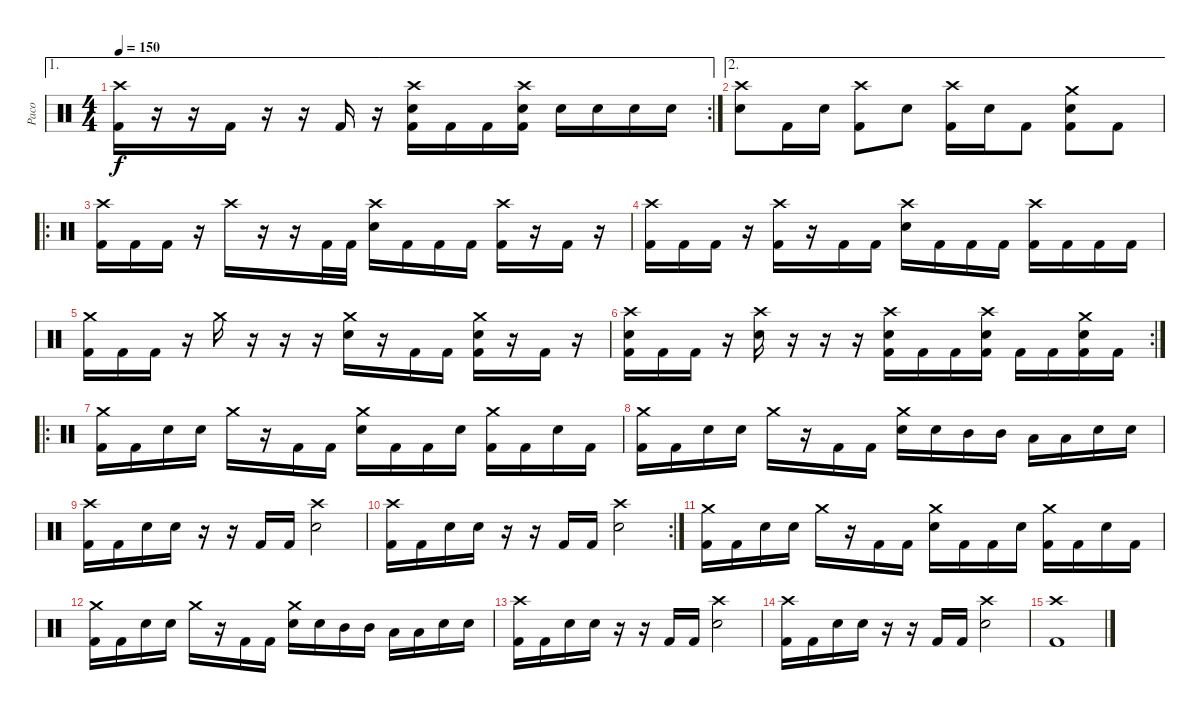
\track ("Paco" "Paco") {instrument percussion}
\staff {score}
\articulation defaults
\ae 1
\rc 2
\ts (4 4)
\tempo 150
\clef neutral
\ks c
("Crash high (hit)" "Kick (hit) 2").16{dy f} r.16 r.16 "Kick (hit) 2".16 r.16 r.16 "Kick (hit) 2".16 r.16 ("Crash high (hit)" "Electric Snare (hit)" "Kick (hit) 2").16 "Kick (hit) 2".16 "Kick (hit) 2".16 ("Crash high (hit)" "Electric Snare (hit)" "Kick (hit) 2").16 "Electric Snare (hit)".16 "Electric Snare (hit)".16 "Electric Snare (hit)".16 "Electric Snare (hit)".16 |
\ae 2
("Crash high (hit)" "Electric Snare (hit)").8 "Kick (hit) 2".16 "Electric Snare (hit)".16 ("Crash high (hit)" "Kick (hit) 2").8 "Electric Snare (hit)".8 ("Crash high (hit)" "Kick (hit) 2").16 "Electric Snare (hit)".16 "Kick (hit) 2".8 ("Crash medium (hit)" "Electric Snare (hit)" "Kick (hit) 2").8 "Kick (hit) 2".8 |
\ro
("Crash high (hit)" "Kick (hit) 2").16 "Kick (hit) 2".16 "Kick (hit) 2".16 r.16 "Crash high (hit)".16 r.16 r.16 "Kick (hit) 2".32 "Kick (hit) 2".32 ("Crash high (hit)" "Electric Snare (hit)").16 "Kick (hit) 2".16 "Kick (hit) 2".16 "Kick (hit) 2".16 ("Crash high (hit)" "Kick (hit) 2").16 r.16 "Kick (hit) 2".16 r.16 |
("Crash high (hit)" "Kick (hit) 2").16 "Kick (hit) 2".16 "Kick (hit) 2".16 r.16 ("Crash high (hit)" "Kick (hit) 2").16 r.16 "Kick (hit) 2".16 "Kick (hit) 2".16 ("Crash high (hit)" "Electric Snare (hit)").16 "Kick (hit) 2".16 "Kick (hit) 2".16 "Kick (hit) 2".16 ("Crash high (hit)" "Kick (hit) 2").16 "Kick (hit) 2".16 "Kick (hit) 2".16 "Kick (hit) 2".16 |
("Crash medium (hit)" "Kick (hit) 2").16 "Kick (hit) 2".16 "Kick (hit) 2".16 r.16 "Crash medium (hit)".16 r.16 r.16 r.16 ("Crash medium (hit)" "Electric Snare (hit)").16 r.16 "Kick (hit) 2".16 "Kick (hit) 2".16 ("Crash medium (hit)" "Electric Snare (hit)" "Kick (hit) 2").16 r.16 "Kick (hit) 2".16 r.16 |
\rc 2
("Crash high (hit)" "Electric Snare (hit)" "Kick (hit) 2").16 "Kick (hit) 2".16 "Kick (hit) 2".16 r.16 ("Crash high (hit)" "Electric Snare (hit)").16 r.16 r.16 r.16 ("Crash high (hit)" "Electric Snare (hit)" "Kick (hit) 2").16 "Kick (hit) 2".16 "Kick (hit) 2".16 ("Crash high (hit)" "Electric Snare (hit)" "Kick (hit) 2").16 "Kick (hit) 2".16 "Kick (hit) 2".16 ("Crash medium (hit)" "Electric Snare (hit)" "Kick (hit) 2").16 "Kick (hit) 2".16 |
\ro
("Crash medium (hit)" "Kick (hit) 2").16 "Kick (hit) 2".16 "Electric Snare (hit)".16 "Electric Snare (hit)".16 "Crash medium (hit)".16 r.16 "Kick (hit) 2".16 "Kick (hit) 2".16 ("Crash medium (hit)" "Electric Snare (hit)").16 "Kick (hit) 2".16 "Kick (hit) 2".16 "Electric Snare (hit)".16 ("Crash medium (hit)" "Kick (hit) 2").16 "Kick (hit) 2".16 "Electric Snare (hit)".16 "Kick (hit) 2".16 |
("Crash medium (hit)" "Kick (hit) 2").16 "Kick (hit) 2".16 "Electric Snare (hit)".16 "Electric Snare (hit)".16 "Crash medium (hit)".16 r.16 "Kick (hit) 2".16 "Kick (hit) 2".16 ("Crash medium (hit)" "Electric Snare (hit)").16 "Electric Snare (hit)".16 "Mid Tom (hit)".16 "Mid Tom (hit)".16 "Low Tom (hit)".16 "Low Tom (hit)".16 "Electric Snare (hit)".16 "Electric Snare (hit)".16 |
("Crash high (hit)" "Kick (hit) 2").16 "Kick (hit) 2".16 "Electric Snare (hit)".16 "Electric Snare (hit)".16 r.16 r.16 "Kick (hit) 2".16 "Kick (hit) 2".16 ("Crash high (hit)" "Electric Snare (hit)").2 |
\rc 2
("Crash high (hit)" "Kick (hit) 2").16 "Kick (hit) 2".16 "Electric Snare (hit)".16 "Electric Snare (hit)".16 r.16 r.16 "Kick (hit) 2".16 "Kick (hit) 2".16 ("Crash high (hit)" "Electric Snare (hit)").2 |
("Crash medium (hit)" "Kick (hit) 2").16 "Kick (hit) 2".16 "Electric Snare (hit)".16 "Electric Snare (hit)".16 "Crash medium (hit)".16 r.16 "Kick (hit) 2".16 "Kick (hit) 2".16 ("Crash medium (hit)" "Electric Snare (hit)").16 "Kick (hit) 2".16 "Kick (hit) 2".16 "Electric Snare (hit)".16 ("Crash medium (hit)" "Kick (hit) 2").16 "Kick (hit) 2".16 "Electric Snare (hit)".16 "Kick (hit) 2".16 |
("Crash medium (hit)" "Kick (hit) 2").16 "Kick (hit) 2".16 "Electric Snare (hit)".16 "Electric Snare (hit)".16 "Crash medium (hit)".16 r.16 "Kick (hit) 2".16 "Kick (hit) 2".16 ("Crash medium (hit)" "Electric Snare (hit)").16 "Electric Snare (hit)".16 "Mid Tom (hit)".16 "Mid Tom (hit)".16 "Low Tom (hit)".16 "Low Tom (hit)".16 "Electric Snare (hit)".16 "Electric Snare (hit)".16 |
("Crash high (hit)" "Kick (hit) 2").16 "Kick (hit) 2".16 "Electric Snare (hit)".16 "Electric Snare (hit)".16 r.16 r.16 "Kick (hit) 2".16 "Kick (hit) 2".16 ("Crash high (hit)" "Electric Snare (hit)").2 |
("Crash high (hit)" "Kick (hit) 2").16 "Kick (hit) 2".16 "Electric Snare (hit)".16 "Electric Snare (hit)".16 r.16 r.16 "Kick (hit) 2".16 "Kick (hit) 2".16 ("Crash high (hit)" "Electric Snare (hit)").2 |
("Crash high (hit)" "Kick (hit) 2").1
